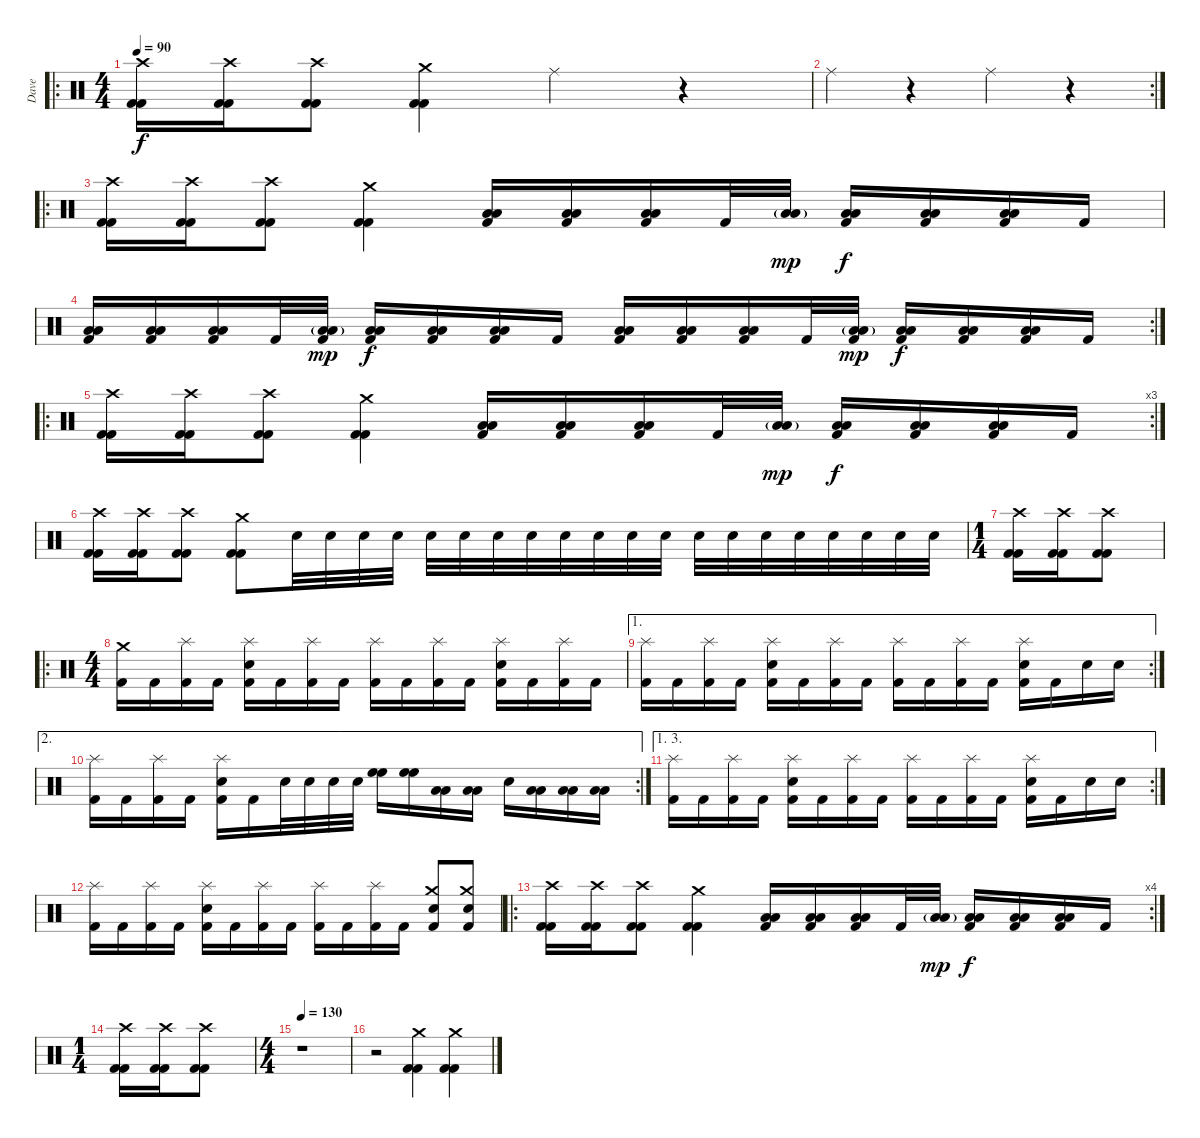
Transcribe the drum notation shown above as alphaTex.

\track ("Dave" "Dave") {instrument percussion}
\staff {score}
\articulation defaults
\ro
\ts (4 4)
\tempo 90
\clef neutral
\ks c
("Crash high (hit)" "Kick (hit) 2" "Kick (hit) 2").16{dy f} ("Crash high (hit)" "Kick (hit) 2" "Kick (hit) 2").16 ("Crash high (hit)" "Kick (hit) 2" "Kick (hit) 2").8 ("Crash medium (hit)" "Kick (hit) 2" "Kick (hit) 2").4 "Ride (middle)".4 r.4 |
\rc 2 "Ride (middle)".4
r.4 "Ride (middle)".4 r.4 |
\ro
("Crash high (hit)" "Kick (hit) 2" "Kick (hit) 2").16 ("Crash high (hit)" "Kick (hit) 2" "Kick (hit) 2").16 ("Crash high (hit)" "Kick (hit) 2" "Kick (hit) 2").8 ("Crash medium (hit)" "Kick (hit) 2" "Kick (hit) 2").4 ("Low Floor Tom (hit)" "Low Floor Tom (hit)" "Kick (hit) 2").16 ("Low Floor Tom (hit)" "Low Floor Tom (hit)" "Kick (hit) 2").16 ("Low Floor Tom (hit)" "Low Floor Tom (hit)" "Kick (hit) 2").16 "Kick (hit) 2".32 ("Low Tom (hit)"{g} "Low Tom (hit)"{g}).32{dy mp} ("Low Tom (hit)" "Low Tom (hit)" "Kick (hit) 2").16{dy f} ("Low Tom (hit)" "Low Tom (hit)" "Kick (hit) 2").16 ("Low Tom (hit)" "Low Tom (hit)" "Kick (hit) 2").16 "Kick (hit) 2".16 |
\rc 2
("Low Floor Tom (hit)" "Low Floor Tom (hit)" "Kick (hit) 2").16 ("Low Floor Tom (hit)" "Low Floor Tom (hit)" "Kick (hit) 2").16 ("Low Floor Tom (hit)" "Low Floor Tom (hit)" "Kick (hit) 2").16 "Kick (hit) 2".32 ("Low Tom (hit)"{g} "Low Tom (hit)"{g} "Kick (hit) 2").32{dy mp} ("Low Tom (hit)" "Low Tom (hit)" "Kick (hit) 2").16{dy f} ("Low Tom (hit)" "Low Tom (hit)" "Kick (hit) 2").16 ("Low Tom (hit)" "Low Tom (hit)" "Kick (hit) 2").16 "Kick (hit) 2".16 ("Low Floor Tom (hit)" "Low Floor Tom (hit)" "Kick (hit) 2").16 ("Low Floor Tom (hit)" "Low Floor Tom (hit)" "Kick (hit) 2").16 ("Low Floor Tom (hit)" "Low Floor Tom (hit)" "Kick (hit) 2").16 "Kick (hit) 2".32 ("Low Tom (hit)"{g} "Low Tom (hit)"{g} "Kick (hit) 2").32{dy mp} ("Low Tom (hit)" "Low Tom (hit)" "Kick (hit) 2").16{dy f} ("Low Tom (hit)" "Low Tom (hit)" "Kick (hit) 2").16 ("Low Tom (hit)" "Low Tom (hit)" "Kick (hit) 2").16 "Kick (hit) 2".16 |
\ro
\rc 3
("Crash high (hit)" "Kick (hit) 2" "Kick (hit) 2").16 ("Crash high (hit)" "Kick (hit) 2" "Kick (hit) 2").16 ("Crash high (hit)" "Kick (hit) 2" "Kick (hit) 2").8 ("Crash medium (hit)" "Kick (hit) 2" "Kick (hit) 2").4 ("Low Floor Tom (hit)" "Low Floor Tom (hit)" "Kick (hit) 2").16 ("Low Floor Tom (hit)" "Low Floor Tom (hit)" "Kick (hit) 2").16 ("Low Floor Tom (hit)" "Low Floor Tom (hit)" "Kick (hit) 2").16 "Kick (hit) 2".32 ("Low Tom (hit)"{g} "Low Tom (hit)"{g}).32{dy mp} ("Low Tom (hit)" "Low Tom (hit)" "Kick (hit) 2").16{dy f} ("Low Tom (hit)" "Low Tom (hit)" "Kick (hit) 2").16 ("Low Tom (hit)" "Low Tom (hit)" "Kick (hit) 2").16 "Kick (hit) 2".16 |
("Crash high (hit)" "Kick (hit) 2" "Kick (hit) 2").16 ("Crash high (hit)" "Kick (hit) 2" "Kick (hit) 2").16 ("Crash high (hit)" "Kick (hit) 2" "Kick (hit) 2").8 ("Crash medium (hit)" "Kick (hit) 2" "Kick (hit) 2").8 "Electric Snare (hit)".32 "Electric Snare (hit)".32 "Electric Snare (hit)".32 "Electric Snare (hit)".32 "Electric Snare (hit)".32 "Electric Snare (hit)".32 "Electric Snare (hit)".32 "Electric Snare (hit)".32 "Electric Snare (hit)".32 "Electric Snare (hit)".32 "Electric Snare (hit)".32 "Electric Snare (hit)".32 "Electric Snare (hit)".32 "Electric Snare (hit)".32 "Electric Snare (hit)".32 "Electric Snare (hit)".32 "Electric Snare (hit)".32 "Electric Snare (hit)".32 "Electric Snare (hit)".32 "Electric Snare (hit)".32 |
\ts (1 4)
("Crash high (hit)" "Kick (hit) 2" "Kick (hit) 2").16 ("Crash high (hit)" "Kick (hit) 2" "Kick (hit) 2").16 ("Crash high (hit)" "Kick (hit) 2" "Kick (hit) 2").8 |
\ro
\ts (4 4)
("Crash medium (hit)" "Kick (hit) 2").16 "Kick (hit) 2".16 ("Splash (hit)" "Kick (hit) 2").16 "Kick (hit) 2".16 ("Splash (hit)" "Electric Snare (hit)" "Kick (hit) 2").16 "Kick (hit) 2".16 ("Splash (hit)" "Kick (hit) 2").16 "Kick (hit) 2".16 ("Splash (hit)" "Kick (hit) 2").16 "Kick (hit) 2".16 ("Splash (hit)" "Kick (hit) 2").16 "Kick (hit) 2".16 ("Splash (hit)" "Electric Snare (hit)" "Kick (hit) 2").16 "Kick (hit) 2".16 ("Splash (hit)" "Kick (hit) 2").16 "Kick (hit) 2".16 |
\ae 1
\rc 2
("Splash (hit)" "Kick (hit) 2").16 "Kick (hit) 2".16 ("Splash (hit)" "Kick (hit) 2").16 "Kick (hit) 2".16 ("Splash (hit)" "Electric Snare (hit)" "Kick (hit) 2").16 "Kick (hit) 2".16 ("Splash (hit)" "Kick (hit) 2").16 "Kick (hit) 2".16 ("Splash (hit)" "Kick (hit) 2").16 "Kick (hit) 2".16 ("Splash (hit)" "Kick (hit) 2").16 "Kick (hit) 2".16 ("Splash (hit)" "Electric Snare (hit)" "Kick (hit) 2").16 "Kick (hit) 2".16 "Electric Snare (hit)".16 "Electric Snare (hit)".16 |
\ae 2
\rc 2
("Splash (hit)" "Kick (hit) 2").16 "Kick (hit) 2".16 ("Splash (hit)" "Kick (hit) 2").16 "Kick (hit) 2".16 ("Splash (hit)" "Electric Snare (hit)" "Kick (hit) 2").16 "Kick (hit) 2".16 "Electric Snare (hit)".32 "Electric Snare (hit)".32 "Electric Snare (hit)".32 "Electric Snare (hit)".32 ("High Floor Tom (hit)" "High Floor Tom (hit)").16 ("High Floor Tom (hit)" "High Floor Tom (hit)").16 ("Low Tom (hit)" "Low Tom (hit)").16 ("Low Tom (hit)" "Low Tom (hit)").16 "Electric Snare (hit)".16 ("Low Tom (hit)" "Low Tom (hit)").16 ("Low Floor Tom (hit)" "Low Floor Tom (hit)").16 ("Low Floor Tom (hit)" "Low Floor Tom (hit)").16 |
\ae (1 3)
\rc 2
("Splash (hit)" "Kick (hit) 2").16 "Kick (hit) 2".16 ("Splash (hit)" "Kick (hit) 2").16 "Kick (hit) 2".16 ("Splash (hit)" "Electric Snare (hit)" "Kick (hit) 2").16 "Kick (hit) 2".16 ("Splash (hit)" "Kick (hit) 2").16 "Kick (hit) 2".16 ("Splash (hit)" "Kick (hit) 2").16 "Kick (hit) 2".16 ("Splash (hit)" "Kick (hit) 2").16 "Kick (hit) 2".16 ("Splash (hit)" "Electric Snare (hit)" "Kick (hit) 2").16 "Kick (hit) 2".16 "Electric Snare (hit)".16 "Electric Snare (hit)".16 |
("Splash (hit)" "Kick (hit) 2").16 "Kick (hit) 2".16 ("Splash (hit)" "Kick (hit) 2").16 "Kick (hit) 2".16 ("Splash (hit)" "Electric Snare (hit)" "Kick (hit) 2").16 "Kick (hit) 2".16 ("Splash (hit)" "Kick (hit) 2").16 "Kick (hit) 2".16 ("Splash (hit)" "Kick (hit) 2").16 "Kick (hit) 2".16 ("Splash (hit)" "Kick (hit) 2").16 "Kick (hit) 2".16 ("Crash medium (hit)" "Electric Snare (hit)" "Kick (hit) 2").8 ("Crash medium (hit)" "Electric Snare (hit)" "Kick (hit) 2").8 |
\ro
\rc 4
("Crash high (hit)" "Kick (hit) 2" "Kick (hit) 2").16 ("Crash high (hit)" "Kick (hit) 2" "Kick (hit) 2").16 ("Crash high (hit)" "Kick (hit) 2" "Kick (hit) 2").8 ("Crash medium (hit)" "Kick (hit) 2" "Kick (hit) 2").4 ("Low Floor Tom (hit)" "Low Floor Tom (hit)" "Kick (hit) 2").16 ("Low Floor Tom (hit)" "Low Floor Tom (hit)" "Kick (hit) 2").16 ("Low Floor Tom (hit)" "Low Floor Tom (hit)" "Kick (hit) 2").16 "Kick (hit) 2".32 ("Low Tom (hit)"{g} "Low Tom (hit)"{g}).32{dy mp} ("Low Tom (hit)" "Low Tom (hit)" "Kick (hit) 2").16{dy f} ("Low Tom (hit)" "Low Tom (hit)" "Kick (hit) 2").16 ("Low Tom (hit)" "Low Tom (hit)" "Kick (hit) 2").16 "Kick (hit) 2".16 |
\ts (1 4)
("Crash high (hit)" "Kick (hit) 2" "Kick (hit) 2").16 ("Crash high (hit)" "Kick (hit) 2" "Kick (hit) 2").16 ("Crash high (hit)" "Kick (hit) 2" "Kick (hit) 2").8 |
\ts (4 4)
\tempo 130
r.1 |
r.2 ("Crash medium (hit)" "Kick (hit) 2" "Kick (hit) 2").4 ("Crash medium (hit)" "Kick (hit) 2" "Kick (hit) 2").4
